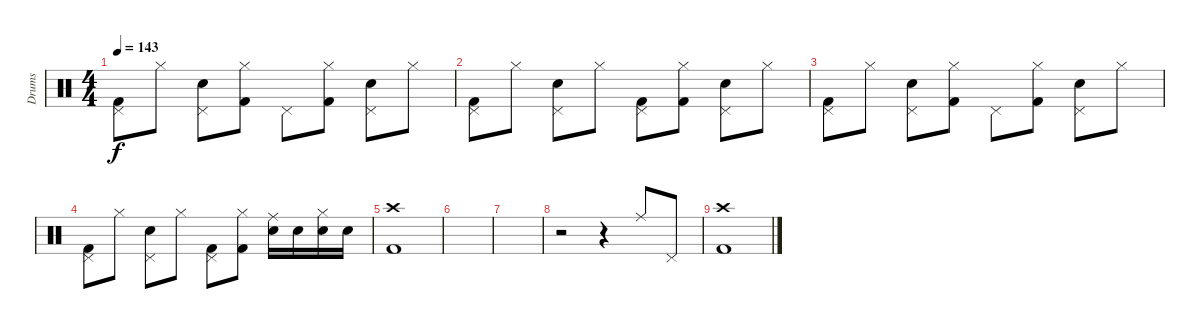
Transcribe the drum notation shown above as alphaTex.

\track ("Drums" "Drums") {instrument percussion}
\staff {score}
\articulation defaults
\ts (4 4)
\tempo 143
\clef neutral
\ks c
("Kick (hit) 2" "Pedal Hi-Hat (hit)").8{dy f} "Hi-Hat (closed)".8 ("Electric Snare (hit)" "Pedal Hi-Hat (hit)").8 ("Kick (hit) 2" "Hi-Hat (closed)").8 "Pedal Hi-Hat (hit)".8 ("Kick (hit) 2" "Hi-Hat (closed)").8 ("Electric Snare (hit)" "Pedal Hi-Hat (hit)").8 "Hi-Hat (closed)".8 |
("Kick (hit) 2" "Pedal Hi-Hat (hit)").8 "Hi-Hat (closed)".8 ("Electric Snare (hit)" "Pedal Hi-Hat (hit)").8 "Hi-Hat (closed)".8 ("Kick (hit) 2" "Pedal Hi-Hat (hit)").8 ("Kick (hit) 2" "Hi-Hat (closed)").8 ("Electric Snare (hit)" "Pedal Hi-Hat (hit)").8 "Hi-Hat (closed)".8 |
("Kick (hit) 2" "Pedal Hi-Hat (hit)").8 "Hi-Hat (closed)".8 ("Electric Snare (hit)" "Pedal Hi-Hat (hit)").8 ("Kick (hit) 2" "Hi-Hat (closed)").8 "Pedal Hi-Hat (hit)".8 ("Kick (hit) 2" "Hi-Hat (closed)").8 ("Electric Snare (hit)" "Pedal Hi-Hat (hit)").8 "Hi-Hat (closed)".8 |
("Kick (hit) 2" "Pedal Hi-Hat (hit)").8 "Hi-Hat (closed)".8 ("Electric Snare (hit)" "Pedal Hi-Hat (hit)").8 "Hi-Hat (closed)".8 ("Kick (hit) 2" "Pedal Hi-Hat (hit)").8 ("Kick (hit) 2" "Hi-Hat (closed)").8 ("Electric Snare (hit)" "Ride (middle)").16 "Snare (hit) 2".16 ("Electric Snare (hit)" "Hi-Hat (closed)").16 "Snare (hit) 2".16 |
("Kick (hit) 2" "Crash high (hit)").1 |
|
|
r.2 r.4 "Ride (middle)".8 "Pedal Hi-Hat (hit)".8 |
("Kick (hit) 2" "Crash high (hit)").1
